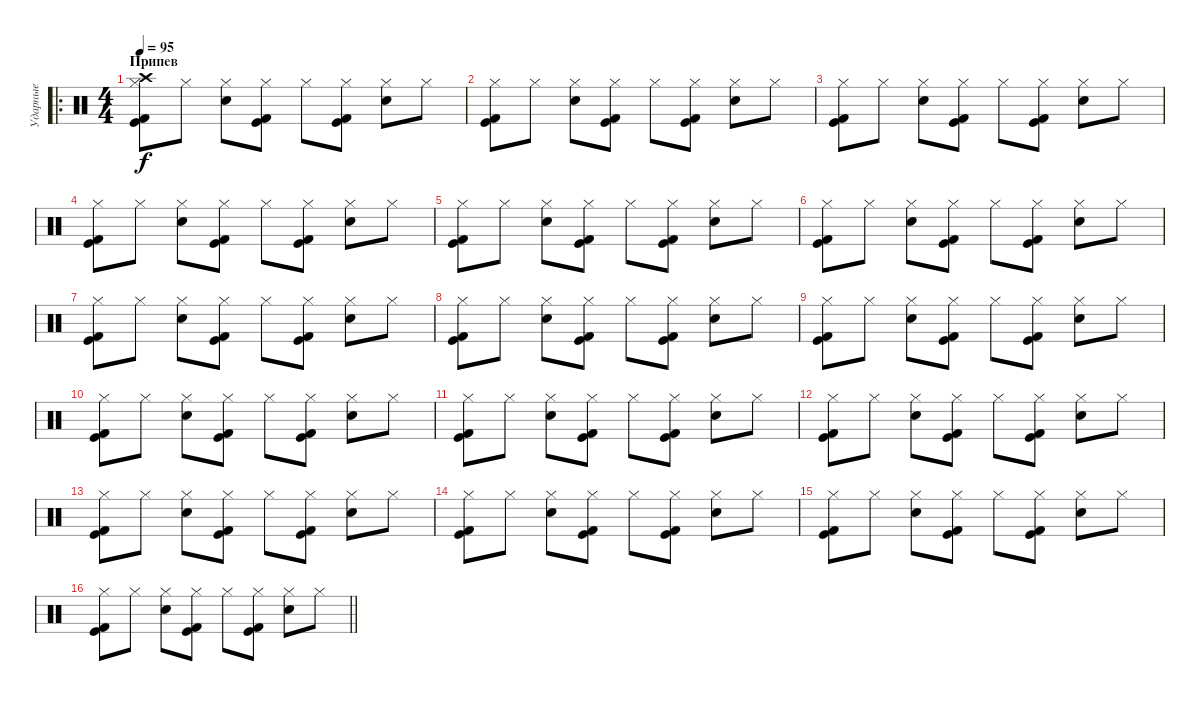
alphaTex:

\track ("Ударные" "Ударные") {instrument percussion}
\staff {score}
\articulation defaults
\ro
\ts (4 4)
\section ("" "Припев")
\tempo 95
\clef neutral
\ks c
("Kick (hit) 2" "Hi-Hat (closed)" "Crash high (hit)" "Kick (hit)").8{dy f} "Hi-Hat (closed)".8 ("Hi-Hat (closed)" "Snare (hit) 2").8 ("Kick (hit) 2" "Hi-Hat (closed)" "Kick (hit)").8 "Hi-Hat (closed)".8 ("Kick (hit) 2" "Hi-Hat (closed)" "Kick (hit)").8 ("Hi-Hat (closed)" "Snare (hit) 2").8 "Hi-Hat (closed)".8 |
("Kick (hit) 2" "Hi-Hat (closed)" "Kick (hit)").8 "Hi-Hat (closed)".8 ("Hi-Hat (closed)" "Snare (hit) 2").8 ("Kick (hit) 2" "Hi-Hat (closed)" "Kick (hit)").8 "Hi-Hat (closed)".8 ("Kick (hit) 2" "Hi-Hat (closed)" "Kick (hit)").8 ("Hi-Hat (closed)" "Snare (hit) 2").8 "Hi-Hat (closed)".8 |
("Kick (hit) 2" "Hi-Hat (closed)" "Kick (hit)").8 "Hi-Hat (closed)".8 ("Hi-Hat (closed)" "Snare (hit) 2").8 ("Kick (hit) 2" "Hi-Hat (closed)" "Kick (hit)").8 "Hi-Hat (closed)".8 ("Kick (hit) 2" "Hi-Hat (closed)" "Kick (hit)").8 ("Hi-Hat (closed)" "Snare (hit) 2").8 "Hi-Hat (closed)".8 |
("Kick (hit) 2" "Hi-Hat (closed)" "Kick (hit)").8 "Hi-Hat (closed)".8 ("Hi-Hat (closed)" "Snare (hit) 2").8 ("Kick (hit) 2" "Hi-Hat (closed)" "Kick (hit)").8 "Hi-Hat (closed)".8 ("Kick (hit) 2" "Hi-Hat (closed)" "Kick (hit)").8 ("Hi-Hat (closed)" "Snare (hit) 2").8 "Hi-Hat (closed)".8 |
("Kick (hit) 2" "Hi-Hat (closed)" "Kick (hit)").8 "Hi-Hat (closed)".8 ("Hi-Hat (closed)" "Snare (hit) 2").8 ("Kick (hit) 2" "Hi-Hat (closed)" "Kick (hit)").8 "Hi-Hat (closed)".8 ("Kick (hit) 2" "Hi-Hat (closed)" "Kick (hit)").8 ("Hi-Hat (closed)" "Snare (hit) 2").8 "Hi-Hat (closed)".8 |
("Kick (hit) 2" "Hi-Hat (closed)" "Kick (hit)").8 "Hi-Hat (closed)".8 ("Hi-Hat (closed)" "Snare (hit) 2").8 ("Kick (hit) 2" "Hi-Hat (closed)" "Kick (hit)").8 "Hi-Hat (closed)".8 ("Kick (hit) 2" "Hi-Hat (closed)" "Kick (hit)").8 ("Hi-Hat (closed)" "Snare (hit) 2").8 "Hi-Hat (closed)".8 |
("Kick (hit) 2" "Hi-Hat (closed)" "Kick (hit)").8 "Hi-Hat (closed)".8 ("Hi-Hat (closed)" "Snare (hit) 2").8 ("Kick (hit) 2" "Hi-Hat (closed)" "Kick (hit)").8 "Hi-Hat (closed)".8 ("Kick (hit) 2" "Hi-Hat (closed)" "Kick (hit)").8 ("Hi-Hat (closed)" "Snare (hit) 2").8 "Hi-Hat (closed)".8 |
("Kick (hit) 2" "Hi-Hat (closed)" "Kick (hit)").8 "Hi-Hat (closed)".8 ("Hi-Hat (closed)" "Snare (hit) 2").8 ("Kick (hit) 2" "Hi-Hat (closed)" "Kick (hit)").8 "Hi-Hat (closed)".8 ("Kick (hit) 2" "Hi-Hat (closed)" "Kick (hit)").8 ("Hi-Hat (closed)" "Snare (hit) 2").8 "Hi-Hat (closed)".8 |
("Kick (hit) 2" "Hi-Hat (closed)" "Kick (hit)").8 "Hi-Hat (closed)".8 ("Hi-Hat (closed)" "Snare (hit) 2").8 ("Kick (hit) 2" "Hi-Hat (closed)" "Kick (hit)").8 "Hi-Hat (closed)".8 ("Kick (hit) 2" "Hi-Hat (closed)" "Kick (hit)").8 ("Hi-Hat (closed)" "Snare (hit) 2").8 "Hi-Hat (closed)".8 |
("Kick (hit) 2" "Hi-Hat (closed)" "Kick (hit)").8 "Hi-Hat (closed)".8 ("Hi-Hat (closed)" "Snare (hit) 2").8 ("Kick (hit) 2" "Hi-Hat (closed)" "Kick (hit)").8 "Hi-Hat (closed)".8 ("Kick (hit) 2" "Hi-Hat (closed)" "Kick (hit)").8 ("Hi-Hat (closed)" "Snare (hit) 2").8 "Hi-Hat (closed)".8 |
("Kick (hit) 2" "Hi-Hat (closed)" "Kick (hit)").8 "Hi-Hat (closed)".8 ("Hi-Hat (closed)" "Snare (hit) 2").8 ("Kick (hit) 2" "Hi-Hat (closed)" "Kick (hit)").8 "Hi-Hat (closed)".8 ("Kick (hit) 2" "Hi-Hat (closed)" "Kick (hit)").8 ("Hi-Hat (closed)" "Snare (hit) 2").8 "Hi-Hat (closed)".8 |
("Kick (hit) 2" "Hi-Hat (closed)" "Kick (hit)").8 "Hi-Hat (closed)".8 ("Hi-Hat (closed)" "Snare (hit) 2").8 ("Kick (hit) 2" "Hi-Hat (closed)" "Kick (hit)").8 "Hi-Hat (closed)".8 ("Kick (hit) 2" "Hi-Hat (closed)" "Kick (hit)").8 ("Hi-Hat (closed)" "Snare (hit) 2").8 "Hi-Hat (closed)".8 |
("Kick (hit) 2" "Hi-Hat (closed)" "Kick (hit)").8 "Hi-Hat (closed)".8 ("Hi-Hat (closed)" "Snare (hit) 2").8 ("Kick (hit) 2" "Hi-Hat (closed)" "Kick (hit)").8 "Hi-Hat (closed)".8 ("Kick (hit) 2" "Hi-Hat (closed)" "Kick (hit)").8 ("Hi-Hat (closed)" "Snare (hit) 2").8 "Hi-Hat (closed)".8 |
("Kick (hit) 2" "Hi-Hat (closed)" "Kick (hit)").8 "Hi-Hat (closed)".8 ("Hi-Hat (closed)" "Snare (hit) 2").8 ("Kick (hit) 2" "Hi-Hat (closed)" "Kick (hit)").8 "Hi-Hat (closed)".8 ("Kick (hit) 2" "Hi-Hat (closed)" "Kick (hit)").8 ("Hi-Hat (closed)" "Snare (hit) 2").8 "Hi-Hat (closed)".8 |
("Kick (hit) 2" "Hi-Hat (closed)" "Kick (hit)").8 "Hi-Hat (closed)".8 ("Hi-Hat (closed)" "Snare (hit) 2").8 ("Kick (hit) 2" "Hi-Hat (closed)" "Kick (hit)").8 "Hi-Hat (closed)".8 ("Kick (hit) 2" "Hi-Hat (closed)" "Kick (hit)").8 ("Hi-Hat (closed)" "Snare (hit) 2").8 "Hi-Hat (closed)".8 |
\barLineRight lightlight
("Kick (hit) 2" "Hi-Hat (closed)" "Kick (hit)").8 "Hi-Hat (closed)".8 ("Hi-Hat (closed)" "Snare (hit) 2").8 ("Kick (hit) 2" "Hi-Hat (closed)" "Kick (hit)").8 "Hi-Hat (closed)".8 ("Kick (hit) 2" "Hi-Hat (closed)" "Kick (hit)").8 ("Hi-Hat (closed)" "Snare (hit) 2").8 "Hi-Hat (closed)".8
